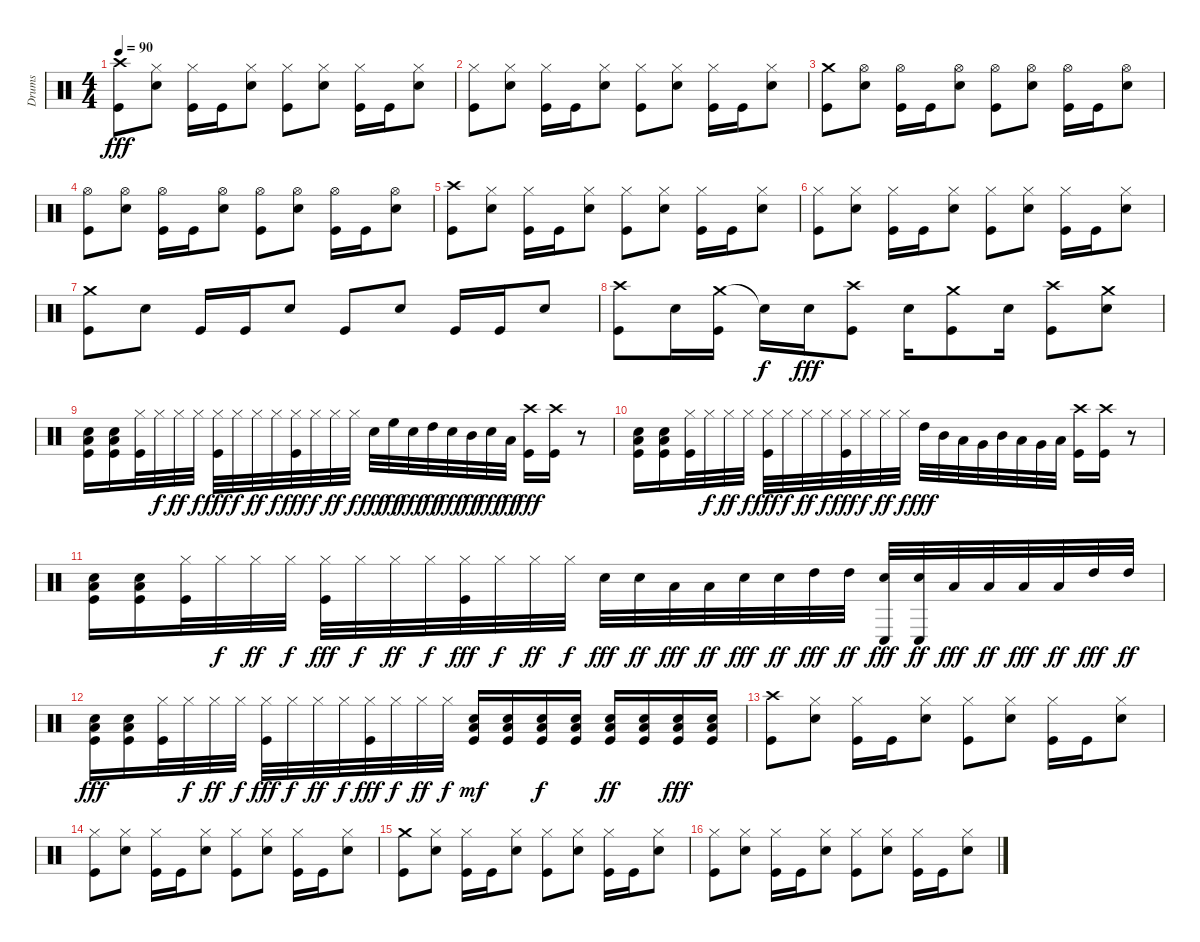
\track ("Drums" "Drums") {instrument percussion}
\staff {score}
\articulation defaults
\ts (4 4)
\tempo 90
\clef neutral
\ks c
("Crash high (hit)" "Kick (hit)").8{dy fff} ("Hi-Hat (closed)" "Snare (hit) 2").8 ("Hi-Hat (closed)" "Kick (hit)").16 "Kick (hit)".16 ("Hi-Hat (closed)" "Snare (hit) 2").8 ("Hi-Hat (closed)" "Kick (hit)").8 ("Hi-Hat (closed)" "Snare (hit) 2").8 ("Hi-Hat (closed)" "Kick (hit)").16 "Kick (hit)".16 ("Hi-Hat (closed)" "Snare (hit) 2").8 |
("Hi-Hat (closed)" "Kick (hit)").8 ("Hi-Hat (closed)" "Snare (hit) 2").8 ("Hi-Hat (closed)" "Kick (hit)").16 "Kick (hit)".16 ("Hi-Hat (closed)" "Snare (hit) 2").8 ("Hi-Hat (closed)" "Kick (hit)").8 ("Hi-Hat (closed)" "Snare (hit) 2").8 ("Hi-Hat (closed)" "Kick (hit)").16 "Kick (hit)".16 ("Hi-Hat (closed)" "Snare (hit) 2").8 |
("Crash medium (hit)" "Kick (hit)").8 ("Hi-Hat (open)" "Snare (hit) 2").8 ("Hi-Hat (open)" "Kick (hit)").16 "Kick (hit)".16 ("Hi-Hat (open)" "Snare (hit) 2").8 ("Hi-Hat (open)" "Kick (hit)").8 ("Hi-Hat (open)" "Snare (hit) 2").8 ("Hi-Hat (open)" "Kick (hit)").16 "Kick (hit)".16 ("Hi-Hat (open)" "Snare (hit) 2").8 |
("Hi-Hat (open)" "Kick (hit)").8 ("Hi-Hat (open)" "Snare (hit) 2").8 ("Hi-Hat (open)" "Kick (hit)").16 "Kick (hit)".16 ("Hi-Hat (open)" "Snare (hit) 2").8 ("Hi-Hat (open)" "Kick (hit)").8 ("Hi-Hat (open)" "Snare (hit) 2").8 ("Hi-Hat (open)" "Kick (hit)").16 "Kick (hit)".16 ("Hi-Hat (open)" "Snare (hit) 2").8 |
("Crash high (hit)" "Kick (hit)").8 ("Hi-Hat (closed)" "Snare (hit) 2").8 ("Hi-Hat (closed)" "Kick (hit)").16 "Kick (hit)".16 ("Hi-Hat (closed)" "Snare (hit) 2").8 ("Hi-Hat (closed)" "Kick (hit)").8 ("Hi-Hat (closed)" "Snare (hit) 2").8 ("Hi-Hat (closed)" "Kick (hit)").16 "Kick (hit)".16 ("Hi-Hat (closed)" "Snare (hit) 2").8 |
("Hi-Hat (closed)" "Kick (hit)").8 ("Hi-Hat (closed)" "Snare (hit) 2").8 ("Hi-Hat (closed)" "Kick (hit)").16 "Kick (hit)".16 ("Hi-Hat (closed)" "Snare (hit) 2").8 ("Hi-Hat (closed)" "Kick (hit)").8 ("Hi-Hat (closed)" "Snare (hit) 2").8 ("Hi-Hat (closed)" "Kick (hit)").16 "Kick (hit)".16 ("Hi-Hat (closed)" "Snare (hit) 2").8 |
("Crash medium (hit)" "Kick (hit)").8 "Snare (hit) 2".8 "Kick (hit)".16 "Kick (hit)".16 "Snare (hit) 2".8 "Kick (hit)".8 "Snare (hit) 2".8 "Kick (hit)".16 "Kick (hit)".16 "Snare (hit) 2".8 |
("Crash high (hit)" "Kick (hit)").8 "Snare (hit) 2".16 ("Crash medium (hit)" "Kick (hit)").16 "Snare (hit)"{t}.16{dy f} "Snare (hit) 2".16{dy fff} ("Crash high (hit)" "Kick (hit)").8 "Snare (hit) 2".16 ("Crash medium (hit)" "Kick (hit)").8 "Snare (hit) 2".16 ("Crash high (hit)" "Kick (hit)").8 ("Crash medium (hit)" "Snare (hit) 2").8 |
("Low Floor Tom (hit)" "Snare (hit) 2" "Kick (hit)").16 ("Low Floor Tom (hit)" "Snare (hit) 2" "Kick (hit)").16 ("Hi-Hat (closed)" "Kick (hit)").32 "Hi-Hat (closed)".32{dy f} "Hi-Hat (closed)".32{dy ff} "Hi-Hat (closed)".32{dy f} ("Hi-Hat (closed)" "Kick (hit)").32{dy fff} "Hi-Hat (closed)".32{dy f} "Hi-Hat (closed)".32{dy ff} "Hi-Hat (closed)".32{dy f} ("Hi-Hat (closed)" "Kick (hit)").32{dy fff} "Hi-Hat (closed)".32{dy f} "Hi-Hat (closed)".32{dy ff} "Hi-Hat (closed)".32{dy f} "Snare (hit) 2".32{dy fff} "High Floor Tom (hit)".32{dy ff} "Snare (hit) 2".32{dy fff} "High Tom (hit)".32{dy ff} "Snare (hit) 2".32{dy fff} "Mid Tom (hit)".32{dy ff} "Snare (hit) 2".32{dy fff} "Low Tom (hit)".32{dy ff} ("Crash high (hit)" "Kick (hit)").16{dy fff} ("Crash high (hit)" "Kick (hit)").16 r.8 |
("Low Floor Tom (hit)" "Snare (hit) 2" "Kick (hit)").16 ("Low Floor Tom (hit)" "Snare (hit) 2" "Kick (hit)").16 ("Hi-Hat (closed)" "Kick (hit)").32 "Hi-Hat (closed)".32{dy f} "Hi-Hat (closed)".32{dy ff} "Hi-Hat (closed)".32{dy f} ("Hi-Hat (closed)" "Kick (hit)").32{dy fff} "Hi-Hat (closed)".32{dy f} "Hi-Hat (closed)".32{dy ff} "Hi-Hat (closed)".32{dy f} ("Hi-Hat (closed)" "Kick (hit)").32{dy fff} "Hi-Hat (closed)".32{dy f} "Hi-Hat (closed)".32{dy ff} "Hi-Hat (closed)".32{dy f} "High Tom (hit)".32{dy fff} "Mid Tom (hit)".32 "Low Tom (hit)".32 "Very Low Tom (hit)".32 "Mid Tom (hit)".32 "Low Tom (hit)".32 "Very Low Tom (hit)".32 "Low Floor Tom (hit)".32 ("Crash high (hit)" "Kick (hit)").16 ("Crash high (hit)" "Kick (hit)").16 r.8 |
("Low Floor Tom (hit)" "Snare (hit) 2" "Kick (hit)").16 ("Low Floor Tom (hit)" "Snare (hit) 2" "Kick (hit)").16 ("Hi-Hat (closed)" "Kick (hit)").32 "Hi-Hat (closed)".32{dy f} "Hi-Hat (closed)".32{dy ff} "Hi-Hat (closed)".32{dy f} ("Hi-Hat (closed)" "Kick (hit)").32{dy fff} "Hi-Hat (closed)".32{dy f} "Hi-Hat (closed)".32{dy ff} "Hi-Hat (closed)".32{dy f} ("Hi-Hat (closed)" "Kick (hit)").32{dy fff} "Hi-Hat (closed)".32{dy f} "Hi-Hat (closed)".32{dy ff} "Hi-Hat (closed)".32{dy f} "Snare (hit) 2".32{dy fff} "Snare (hit) 2".32{dy ff} "Low Floor Tom (hit)".32{dy fff} "Low Floor Tom (hit)".32{dy ff} "Snare (hit) 2".32{dy fff} "Snare (hit) 2".32{dy ff} "High Tom (hit)".32{dy fff} "High Tom (hit)".32{dy ff} ("Conga low (hit)" "Snare (hit) 2").32{dy fff} ("Conga low (hit)" "Snare (hit) 2").32{dy ff} "Low Floor Tom (hit)".32{dy fff} "Low Floor Tom (hit)".32{dy ff} "Low Tom (hit)".32{dy fff} "Low Tom (hit)".32{dy ff} "High Tom (hit)".32{dy fff} "High Tom (hit)".32{dy ff} |
("Low Floor Tom (hit)" "Snare (hit) 2" "Kick (hit)").16{dy fff} ("Low Floor Tom (hit)" "Snare (hit) 2" "Kick (hit)").16 ("Hi-Hat (closed)" "Kick (hit)").32 "Hi-Hat (closed)".32{dy f} "Hi-Hat (closed)".32{dy ff} "Hi-Hat (closed)".32{dy f} ("Hi-Hat (closed)" "Kick (hit)").32{dy fff} "Hi-Hat (closed)".32{dy f} "Hi-Hat (closed)".32{dy ff} "Hi-Hat (closed)".32{dy f} ("Hi-Hat (closed)" "Kick (hit)").32{dy fff} "Hi-Hat (closed)".32{dy f} "Hi-Hat (closed)".32{dy ff} "Hi-Hat (closed)".32{dy f} ("Low Tom (hit)" "Snare (hit) 2" "Kick (hit)").16{dy mf} ("Low Tom (hit)" "Snare (hit) 2" "Kick (hit)").16 ("Low Tom (hit)" "Snare (hit) 2" "Kick (hit)").16{dy f} ("Low Tom (hit)" "Snare (hit) 2" "Kick (hit)").16 ("Low Tom (hit)" "Snare (hit) 2" "Kick (hit)").16{dy ff} ("Low Tom (hit)" "Snare (hit) 2" "Kick (hit)").16 ("Low Tom (hit)" "Snare (hit) 2" "Kick (hit)").16{dy fff} ("Low Tom (hit)" "Snare (hit) 2" "Kick (hit)").16 |
("Crash high (hit)" "Kick (hit)").8 ("Hi-Hat (closed)" "Snare (hit) 2").8 ("Hi-Hat (closed)" "Kick (hit)").16 "Kick (hit)".16 ("Hi-Hat (closed)" "Snare (hit) 2").8 ("Hi-Hat (closed)" "Kick (hit)").8 ("Hi-Hat (closed)" "Snare (hit) 2").8 ("Hi-Hat (closed)" "Kick (hit)").16 "Kick (hit)".16 ("Hi-Hat (closed)" "Snare (hit) 2").8 |
("Hi-Hat (closed)" "Kick (hit)").8 ("Hi-Hat (closed)" "Snare (hit) 2").8 ("Hi-Hat (closed)" "Kick (hit)").16 "Kick (hit)".16 ("Hi-Hat (closed)" "Snare (hit) 2").8 ("Hi-Hat (closed)" "Kick (hit)").8 ("Hi-Hat (closed)" "Snare (hit) 2").8 ("Hi-Hat (closed)" "Kick (hit)").16 "Kick (hit)".16 ("Hi-Hat (closed)" "Snare (hit) 2").8 |
("Crash medium (hit)" "Kick (hit)").8 ("Hi-Hat (closed)" "Snare (hit) 2").8 ("Hi-Hat (closed)" "Kick (hit)").16 "Kick (hit)".16 ("Hi-Hat (closed)" "Snare (hit) 2").8 ("Hi-Hat (closed)" "Kick (hit)").8 ("Hi-Hat (closed)" "Snare (hit) 2").8 ("Hi-Hat (closed)" "Kick (hit)").16 "Kick (hit)".16 ("Hi-Hat (closed)" "Snare (hit) 2").8 |
("Hi-Hat (closed)" "Kick (hit)").8 ("Hi-Hat (closed)" "Snare (hit) 2").8 ("Hi-Hat (closed)" "Kick (hit)").16 "Kick (hit)".16 ("Hi-Hat (closed)" "Snare (hit) 2").8 ("Hi-Hat (closed)" "Kick (hit)").8 ("Hi-Hat (closed)" "Snare (hit) 2").8 ("Hi-Hat (closed)" "Kick (hit)").16 "Kick (hit)".16 ("Hi-Hat (closed)" "Snare (hit) 2").8
